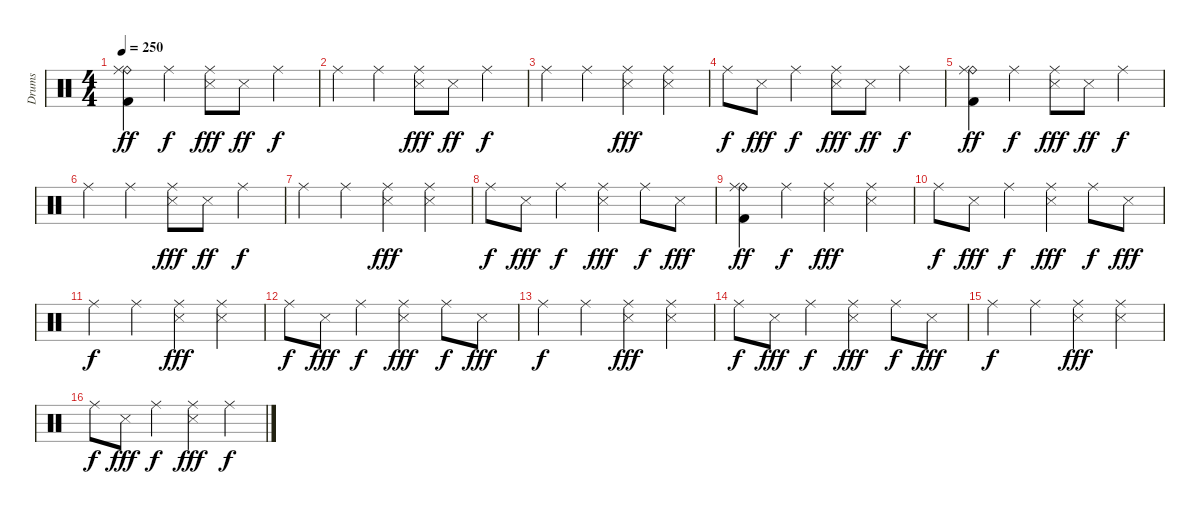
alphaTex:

\track ("Drums" "Drums") {instrument percussion}
\staff {score}
\articulation defaults
\ts (4 4)
\tempo 250
\clef neutral
\ks c
("Ride (bell)" "Ride (middle)" "Kick (hit) 2").4{dy ff} "Ride (middle)".4{dy f} ("Ride (middle)" "Snare (side stick) 3").8{dy fff} "Snare (side stick) 3".8{dy ff} "Ride (middle)".4{dy f} |
"Ride (middle)".4 "Ride (middle)".4 ("Ride (middle)" "Snare (side stick) 3").8{dy fff} "Snare (side stick) 3".8{dy ff} "Ride (middle)".4{dy f} |
"Ride (middle)".4 "Ride (middle)".4 ("Ride (middle)" "Snare (side stick) 3").4{dy fff} ("Ride (middle)" "Snare (side stick) 3").4 |
"Ride (middle)".8{dy f} "Snare (side stick) 3".8{dy fff} "Ride (middle)".4{dy f} ("Ride (middle)" "Snare (side stick) 3").8{dy fff} "Snare (side stick) 3".8{dy ff} "Ride (middle)".4{dy f} |
("Ride (bell)" "Ride (middle)" "Kick (hit) 2").4{dy ff} "Ride (middle)".4{dy f} ("Ride (middle)" "Snare (side stick) 3").8{dy fff} "Snare (side stick) 3".8{dy ff} "Ride (middle)".4{dy f} |
"Ride (middle)".4 "Ride (middle)".4 ("Ride (middle)" "Snare (side stick) 3").8{dy fff} "Snare (side stick) 3".8{dy ff} "Ride (middle)".4{dy f} |
"Ride (middle)".4 "Ride (middle)".4 ("Ride (middle)" "Snare (side stick) 3").4{dy fff} ("Ride (middle)" "Snare (side stick) 3").4 |
"Ride (middle)".8{dy f} "Snare (side stick) 3".8{dy fff} "Ride (middle)".4{dy f} ("Ride (middle)" "Snare (side stick) 3").4{dy fff} "Ride (middle)".8{dy f} "Snare (side stick) 3".8{dy fff} |
("Ride (bell)" "Ride (middle)" "Kick (hit) 2").4{dy ff} "Ride (middle)".4{dy f} ("Ride (middle)" "Snare (side stick) 3").4{dy fff} ("Ride (middle)" "Snare (side stick) 3").4 |
"Ride (middle)".8{dy f} "Snare (side stick) 3".8{dy fff} "Ride (middle)".4{dy f} ("Ride (middle)" "Snare (side stick) 3").4{dy fff} "Ride (middle)".8{dy f} "Snare (side stick) 3".8{dy fff} |
"Ride (middle)".4{dy f} "Ride (middle)".4 ("Ride (middle)" "Snare (side stick) 3").4{dy fff} ("Ride (middle)" "Snare (side stick) 3").4 |
"Ride (middle)".8{dy f} "Snare (side stick) 3".8{dy fff} "Ride (middle)".4{dy f} ("Ride (middle)" "Snare (side stick) 3").4{dy fff} "Ride (middle)".8{dy f} "Snare (side stick) 3".8{dy fff} |
"Ride (middle)".4{dy f} "Ride (middle)".4 ("Ride (middle)" "Snare (side stick) 3").4{dy fff} ("Ride (middle)" "Snare (side stick) 3").4 |
"Ride (middle)".8{dy f} "Snare (side stick) 3".8{dy fff} "Ride (middle)".4{dy f} ("Ride (middle)" "Snare (side stick) 3").4{dy fff} "Ride (middle)".8{dy f} "Snare (side stick) 3".8{dy fff} |
"Ride (middle)".4{dy f} "Ride (middle)".4 ("Ride (middle)" "Snare (side stick) 3").4{dy fff} ("Ride (middle)" "Snare (side stick) 3").4 |
"Ride (middle)".8{dy f} "Snare (side stick) 3".8{dy fff} "Ride (middle)".4{dy f} ("Ride (middle)" "Snare (side stick) 3").4{dy fff} "Ride (middle)".4{dy f}
